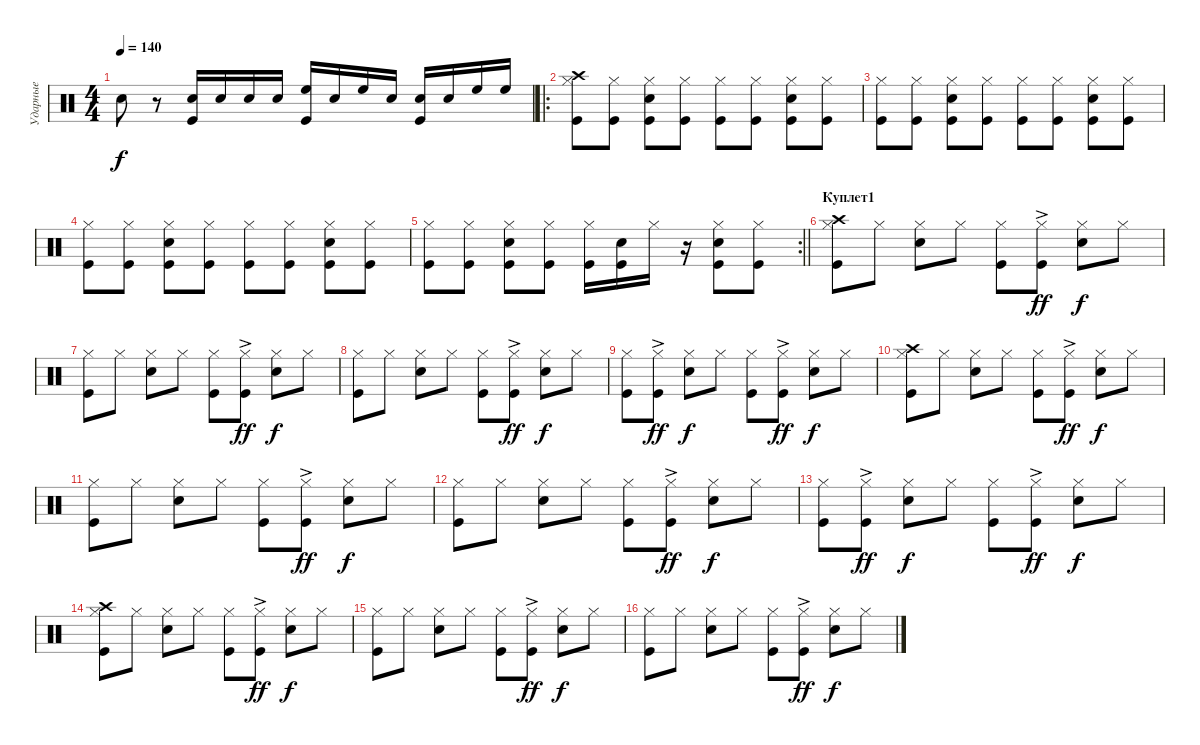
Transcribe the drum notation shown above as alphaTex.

\track ("Ударные" "Ударные") {instrument percussion}
\staff {score}
\articulation defaults
\ts (4 4)
\tempo 140
\clef neutral
\ks c "Snare (hit) 2".8{dy f}
r.8 ("Snare (hit) 2" "Kick (hit)").16 "Snare (hit) 2".16 "Snare (hit) 2".16 "Snare (hit) 2".16 ("High Floor Tom (hit)" "Kick (hit)").16 "Snare (hit) 2".16 "High Floor Tom (hit)".16 "Snare (hit) 2".16 ("Snare (hit) 2" "Kick (hit)").16 "Snare (hit) 2".16 "High Floor Tom (hit)".16 "High Floor Tom (hit)".16 |
\ro
("Hi-Hat (closed)" "Kick (hit)" "Crash high (hit)").8 ("Hi-Hat (closed)" "Kick (hit)").8 ("Hi-Hat (closed)" "Kick (hit)" "Snare (hit) 2").8 ("Hi-Hat (closed)" "Kick (hit)").8 ("Hi-Hat (closed)" "Kick (hit)").8 ("Hi-Hat (closed)" "Kick (hit)").8 ("Hi-Hat (closed)" "Kick (hit)" "Snare (hit) 2").8 ("Hi-Hat (closed)" "Kick (hit)").8 |
("Hi-Hat (closed)" "Kick (hit)").8 ("Hi-Hat (closed)" "Kick (hit)").8 ("Hi-Hat (closed)" "Kick (hit)" "Snare (hit) 2").8 ("Hi-Hat (closed)" "Kick (hit)").8 ("Hi-Hat (closed)" "Kick (hit)").8 ("Hi-Hat (closed)" "Kick (hit)").8 ("Hi-Hat (closed)" "Kick (hit)" "Snare (hit) 2").8 ("Hi-Hat (closed)" "Kick (hit)").8 |
("Hi-Hat (closed)" "Kick (hit)").8 ("Hi-Hat (closed)" "Kick (hit)").8 ("Hi-Hat (closed)" "Kick (hit)" "Snare (hit) 2").8 ("Hi-Hat (closed)" "Kick (hit)").8 ("Hi-Hat (closed)" "Kick (hit)").8 ("Hi-Hat (closed)" "Kick (hit)").8 ("Hi-Hat (closed)" "Kick (hit)" "Snare (hit) 2").8 ("Hi-Hat (closed)" "Kick (hit)").8 |
\rc 2
\barLineRight lightlight
("Hi-Hat (closed)" "Kick (hit)").8 ("Hi-Hat (closed)" "Kick (hit)").8 ("Hi-Hat (closed)" "Kick (hit)" "Snare (hit) 2").8 ("Hi-Hat (closed)" "Kick (hit)").8 ("Hi-Hat (closed)" "Kick (hit)").16 ("Kick (hit)" "Snare (hit) 2").16 "Hi-Hat (closed)".16 r.16 ("Hi-Hat (closed)" "Kick (hit)" "Snare (hit) 2").8 ("Hi-Hat (closed)" "Kick (hit)").8 |
\section ("" "Куплет1")
("Hi-Hat (closed)" "Kick (hit)" "Crash high (hit)").8 "Hi-Hat (closed)".8 ("Hi-Hat (closed)" "Snare (hit) 2").8 "Hi-Hat (closed)".8 ("Hi-Hat (closed)" "Kick (hit)").8 ("Hi-Hat (closed)" "Kick (hit)"{ac}).8{dy ff} ("Hi-Hat (closed)" "Snare (hit) 2").8{dy f} "Hi-Hat (closed)".8 |
("Hi-Hat (closed)" "Kick (hit)").8 "Hi-Hat (closed)".8 ("Hi-Hat (closed)" "Snare (hit) 2").8 "Hi-Hat (closed)".8 ("Hi-Hat (closed)" "Kick (hit)").8 ("Hi-Hat (closed)" "Kick (hit)"{ac}).8{dy ff} ("Hi-Hat (closed)" "Snare (hit) 2").8{dy f} "Hi-Hat (closed)".8 |
("Hi-Hat (closed)" "Kick (hit)").8 "Hi-Hat (closed)".8 ("Hi-Hat (closed)" "Snare (hit) 2").8 "Hi-Hat (closed)".8 ("Hi-Hat (closed)" "Kick (hit)").8 ("Hi-Hat (closed)" "Kick (hit)"{ac}).8{dy ff} ("Hi-Hat (closed)" "Snare (hit) 2").8{dy f} "Hi-Hat (closed)".8 |
("Hi-Hat (closed)" "Kick (hit)").8 ("Hi-Hat (closed)" "Kick (hit)"{ac}).8{dy ff} ("Hi-Hat (closed)" "Snare (hit) 2").8{dy f} "Hi-Hat (closed)".8 ("Hi-Hat (closed)" "Kick (hit)").8 ("Hi-Hat (closed)" "Kick (hit)"{ac}).8{dy ff} ("Hi-Hat (closed)" "Snare (hit) 2").8{dy f} "Hi-Hat (closed)".8 |
("Hi-Hat (closed)" "Kick (hit)" "Crash high (hit)").8 "Hi-Hat (closed)".8 ("Hi-Hat (closed)" "Snare (hit) 2").8 "Hi-Hat (closed)".8 ("Hi-Hat (closed)" "Kick (hit)").8 ("Hi-Hat (closed)" "Kick (hit)"{ac}).8{dy ff} ("Hi-Hat (closed)" "Snare (hit) 2").8{dy f} "Hi-Hat (closed)".8 |
("Hi-Hat (closed)" "Kick (hit)").8 "Hi-Hat (closed)".8 ("Hi-Hat (closed)" "Snare (hit) 2").8 "Hi-Hat (closed)".8 ("Hi-Hat (closed)" "Kick (hit)").8 ("Hi-Hat (closed)" "Kick (hit)"{ac}).8{dy ff} ("Hi-Hat (closed)" "Snare (hit) 2").8{dy f} "Hi-Hat (closed)".8 |
("Hi-Hat (closed)" "Kick (hit)").8 "Hi-Hat (closed)".8 ("Hi-Hat (closed)" "Snare (hit) 2").8 "Hi-Hat (closed)".8 ("Hi-Hat (closed)" "Kick (hit)").8 ("Hi-Hat (closed)" "Kick (hit)"{ac}).8{dy ff} ("Hi-Hat (closed)" "Snare (hit) 2").8{dy f} "Hi-Hat (closed)".8 |
("Hi-Hat (closed)" "Kick (hit)").8 ("Hi-Hat (closed)" "Kick (hit)"{ac}).8{dy ff} ("Hi-Hat (closed)" "Snare (hit) 2").8{dy f} "Hi-Hat (closed)".8 ("Hi-Hat (closed)" "Kick (hit)").8 ("Hi-Hat (closed)" "Kick (hit)"{ac}).8{dy ff} ("Hi-Hat (closed)" "Snare (hit) 2").8{dy f} "Hi-Hat (closed)".8 |
("Hi-Hat (closed)" "Kick (hit)" "Crash high (hit)").8 "Hi-Hat (closed)".8 ("Hi-Hat (closed)" "Snare (hit) 2").8 "Hi-Hat (closed)".8 ("Hi-Hat (closed)" "Kick (hit)").8 ("Hi-Hat (closed)" "Kick (hit)"{ac}).8{dy ff} ("Hi-Hat (closed)" "Snare (hit) 2").8{dy f} "Hi-Hat (closed)".8 |
("Hi-Hat (closed)" "Kick (hit)").8 "Hi-Hat (closed)".8 ("Hi-Hat (closed)" "Snare (hit) 2").8 "Hi-Hat (closed)".8 ("Hi-Hat (closed)" "Kick (hit)").8 ("Hi-Hat (closed)" "Kick (hit)"{ac}).8{dy ff} ("Hi-Hat (closed)" "Snare (hit) 2").8{dy f} "Hi-Hat (closed)".8 |
("Hi-Hat (closed)" "Kick (hit)").8 "Hi-Hat (closed)".8 ("Hi-Hat (closed)" "Snare (hit) 2").8 "Hi-Hat (closed)".8 ("Hi-Hat (closed)" "Kick (hit)").8 ("Hi-Hat (closed)" "Kick (hit)"{ac}).8{dy ff} ("Hi-Hat (closed)" "Snare (hit) 2").8{dy f} "Hi-Hat (closed)".8
